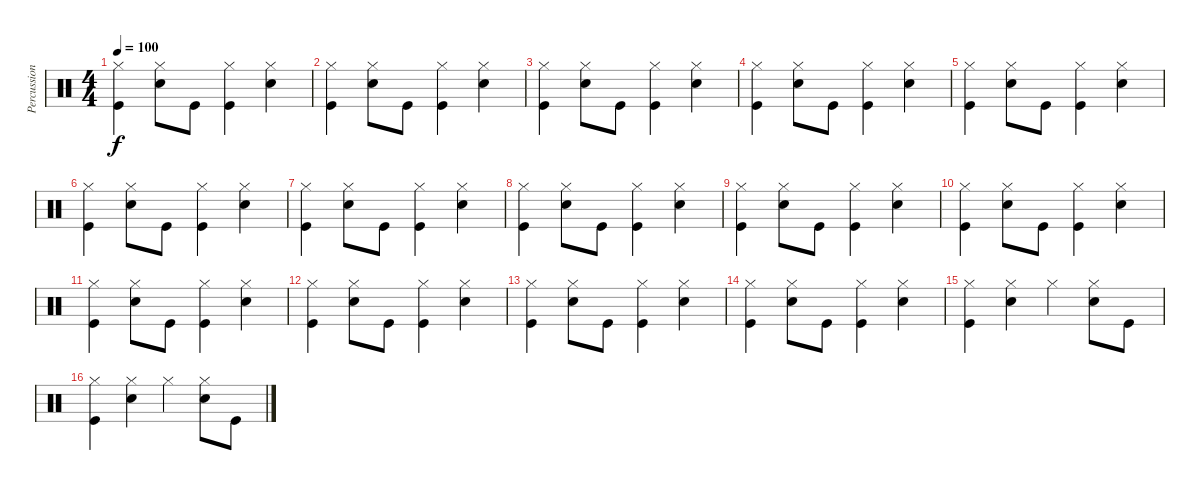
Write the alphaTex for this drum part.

\track ("Percussion" "Percussion") {instrument percussion}
\staff {score}
\articulation defaults
\ts (4 4)
\tempo 100
\clef neutral
\ks c
("Hi-Hat (closed)" "Kick (hit)").4{dy f} ("Hi-Hat (closed)" "Snare (hit) 2").8 "Kick (hit)".8 ("Hi-Hat (closed)" "Kick (hit)").4 ("Snare (hit) 2" "Hi-Hat (closed)").4 |
("Hi-Hat (closed)" "Kick (hit)").4 ("Hi-Hat (closed)" "Snare (hit) 2").8 "Kick (hit)".8 ("Hi-Hat (closed)" "Kick (hit)").4 ("Snare (hit) 2" "Hi-Hat (closed)").4 |
("Hi-Hat (closed)" "Kick (hit)").4 ("Hi-Hat (closed)" "Snare (hit) 2").8 "Kick (hit)".8 ("Hi-Hat (closed)" "Kick (hit)").4 ("Snare (hit) 2" "Hi-Hat (closed)").4 |
("Hi-Hat (closed)" "Kick (hit)").4 ("Hi-Hat (closed)" "Snare (hit) 2").8 "Kick (hit)".8 ("Hi-Hat (closed)" "Kick (hit)").4 ("Snare (hit) 2" "Hi-Hat (closed)").4 |
("Hi-Hat (closed)" "Kick (hit)").4 ("Hi-Hat (closed)" "Snare (hit) 2").8 "Kick (hit)".8 ("Hi-Hat (closed)" "Kick (hit)").4 ("Snare (hit) 2" "Hi-Hat (closed)").4 |
("Hi-Hat (closed)" "Kick (hit)").4 ("Hi-Hat (closed)" "Snare (hit) 2").8 "Kick (hit)".8 ("Hi-Hat (closed)" "Kick (hit)").4 ("Snare (hit) 2" "Hi-Hat (closed)").4 |
("Hi-Hat (closed)" "Kick (hit)").4 ("Hi-Hat (closed)" "Snare (hit) 2").8 "Kick (hit)".8 ("Hi-Hat (closed)" "Kick (hit)").4 ("Snare (hit) 2" "Hi-Hat (closed)").4 |
("Hi-Hat (closed)" "Kick (hit)").4 ("Hi-Hat (closed)" "Snare (hit) 2").8 "Kick (hit)".8 ("Hi-Hat (closed)" "Kick (hit)").4 ("Snare (hit) 2" "Hi-Hat (closed)").4 |
("Hi-Hat (closed)" "Kick (hit)").4 ("Hi-Hat (closed)" "Snare (hit) 2").8 "Kick (hit)".8 ("Hi-Hat (closed)" "Kick (hit)").4 ("Snare (hit) 2" "Hi-Hat (closed)").4 |
("Hi-Hat (closed)" "Kick (hit)").4 ("Hi-Hat (closed)" "Snare (hit) 2").8 "Kick (hit)".8 ("Hi-Hat (closed)" "Kick (hit)").4 ("Snare (hit) 2" "Hi-Hat (closed)").4 |
("Hi-Hat (closed)" "Kick (hit)").4 ("Hi-Hat (closed)" "Snare (hit) 2").8 "Kick (hit)".8 ("Hi-Hat (closed)" "Kick (hit)").4 ("Snare (hit) 2" "Hi-Hat (closed)").4 |
("Hi-Hat (closed)" "Kick (hit)").4 ("Hi-Hat (closed)" "Snare (hit) 2").8 "Kick (hit)".8 ("Hi-Hat (closed)" "Kick (hit)").4 ("Snare (hit) 2" "Hi-Hat (closed)").4 |
("Hi-Hat (closed)" "Kick (hit)").4 ("Hi-Hat (closed)" "Snare (hit) 2").8 "Kick (hit)".8 ("Hi-Hat (closed)" "Kick (hit)").4 ("Snare (hit) 2" "Hi-Hat (closed)").4 |
("Hi-Hat (closed)" "Kick (hit)").4 ("Hi-Hat (closed)" "Snare (hit) 2").8 "Kick (hit)".8 ("Hi-Hat (closed)" "Kick (hit)").4 ("Snare (hit) 2" "Hi-Hat (closed)").4 |
("Hi-Hat (closed)" "Kick (hit)").4 ("Hi-Hat (closed)" "Snare (hit) 2").4 "Hi-Hat (closed)".4 ("Hi-Hat (closed)" "Snare (hit) 2").8 "Kick (hit)".8 |
("Hi-Hat (closed)" "Kick (hit)").4 ("Hi-Hat (closed)" "Snare (hit) 2").4 "Hi-Hat (closed)".4 ("Hi-Hat (closed)" "Snare (hit) 2").8 "Kick (hit)".8
